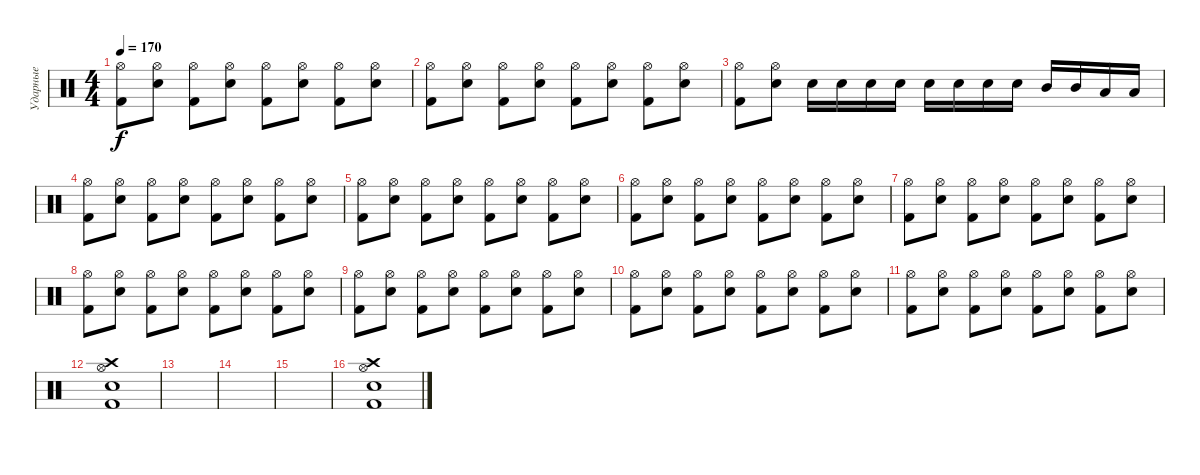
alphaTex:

\track ("Ударные" "Ударные") {instrument percussion}
\staff {score}
\articulation defaults
\ts (4 4)
\tempo 170
\clef neutral
\ks c
("Hi-Hat (open)" "Kick (hit) 2").8{dy f} ("Hi-Hat (open)" "Snare (hit) 2").8 ("Hi-Hat (open)" "Kick (hit) 2").8 ("Hi-Hat (open)" "Snare (hit) 2").8 ("Hi-Hat (open)" "Kick (hit) 2").8 ("Hi-Hat (open)" "Snare (hit) 2").8 ("Hi-Hat (open)" "Kick (hit) 2").8 ("Hi-Hat (open)" "Snare (hit) 2").8 |
("Hi-Hat (open)" "Kick (hit) 2").8 ("Hi-Hat (open)" "Snare (hit) 2").8 ("Hi-Hat (open)" "Kick (hit) 2").8 ("Hi-Hat (open)" "Snare (hit) 2").8 ("Hi-Hat (open)" "Kick (hit) 2").8 ("Hi-Hat (open)" "Snare (hit) 2").8 ("Hi-Hat (open)" "Kick (hit) 2").8 ("Hi-Hat (open)" "Snare (hit) 2").8 |
("Hi-Hat (open)" "Kick (hit) 2").8 ("Hi-Hat (open)" "Snare (hit) 2").8 "Snare (hit) 2".16 "Snare (hit) 2".16 "Snare (hit) 2".16 "Snare (hit) 2".16 "Snare (hit) 2".16 "Snare (hit) 2".16 "Snare (hit) 2".16 "Snare (hit) 2".16 "Mid Tom (hit)".16 "Mid Tom (hit)".16 "Low Tom (hit)".16 "Low Tom (hit)".16 |
("Hi-Hat (open)" "Kick (hit) 2").8 ("Hi-Hat (open)" "Snare (hit) 2").8 ("Hi-Hat (open)" "Kick (hit) 2").8 ("Hi-Hat (open)" "Snare (hit) 2").8 ("Hi-Hat (open)" "Kick (hit) 2").8 ("Hi-Hat (open)" "Snare (hit) 2").8 ("Hi-Hat (open)" "Kick (hit) 2").8 ("Hi-Hat (open)" "Snare (hit) 2").8 |
("Hi-Hat (open)" "Kick (hit) 2").8 ("Hi-Hat (open)" "Snare (hit) 2").8 ("Hi-Hat (open)" "Kick (hit) 2").8 ("Hi-Hat (open)" "Snare (hit) 2").8 ("Hi-Hat (open)" "Kick (hit) 2").8 ("Hi-Hat (open)" "Snare (hit) 2").8 ("Hi-Hat (open)" "Kick (hit) 2").8 ("Hi-Hat (open)" "Snare (hit) 2").8 |
("Hi-Hat (open)" "Kick (hit) 2").8 ("Hi-Hat (open)" "Snare (hit) 2").8 ("Hi-Hat (open)" "Kick (hit) 2").8 ("Hi-Hat (open)" "Snare (hit) 2").8 ("Hi-Hat (open)" "Kick (hit) 2").8 ("Hi-Hat (open)" "Snare (hit) 2").8 ("Hi-Hat (open)" "Kick (hit) 2").8 ("Hi-Hat (open)" "Snare (hit) 2").8 |
("Hi-Hat (open)" "Kick (hit) 2").8 ("Hi-Hat (open)" "Snare (hit) 2").8 ("Hi-Hat (open)" "Kick (hit) 2").8 ("Hi-Hat (open)" "Snare (hit) 2").8 ("Hi-Hat (open)" "Kick (hit) 2").8 ("Hi-Hat (open)" "Snare (hit) 2").8 ("Hi-Hat (open)" "Kick (hit) 2").8 ("Hi-Hat (open)" "Snare (hit) 2").8 |
("Hi-Hat (open)" "Kick (hit) 2").8 ("Hi-Hat (open)" "Snare (hit) 2").8 ("Hi-Hat (open)" "Kick (hit) 2").8 ("Hi-Hat (open)" "Snare (hit) 2").8 ("Hi-Hat (open)" "Kick (hit) 2").8 ("Hi-Hat (open)" "Snare (hit) 2").8 ("Hi-Hat (open)" "Kick (hit) 2").8 ("Hi-Hat (open)" "Snare (hit) 2").8 |
("Hi-Hat (open)" "Kick (hit) 2").8 ("Hi-Hat (open)" "Snare (hit) 2").8 ("Hi-Hat (open)" "Kick (hit) 2").8 ("Hi-Hat (open)" "Snare (hit) 2").8 ("Hi-Hat (open)" "Kick (hit) 2").8 ("Hi-Hat (open)" "Snare (hit) 2").8 ("Hi-Hat (open)" "Kick (hit) 2").8 ("Hi-Hat (open)" "Snare (hit) 2").8 |
("Hi-Hat (open)" "Kick (hit) 2").8 ("Hi-Hat (open)" "Snare (hit) 2").8 ("Hi-Hat (open)" "Kick (hit) 2").8 ("Hi-Hat (open)" "Snare (hit) 2").8 ("Hi-Hat (open)" "Kick (hit) 2").8 ("Hi-Hat (open)" "Snare (hit) 2").8 ("Hi-Hat (open)" "Kick (hit) 2").8 ("Hi-Hat (open)" "Snare (hit) 2").8 |
("Hi-Hat (open)" "Kick (hit) 2").8 ("Hi-Hat (open)" "Snare (hit) 2").8 ("Hi-Hat (open)" "Kick (hit) 2").8 ("Hi-Hat (open)" "Snare (hit) 2").8 ("Hi-Hat (open)" "Kick (hit) 2").8 ("Hi-Hat (open)" "Snare (hit) 2").8 ("Hi-Hat (open)" "Kick (hit) 2").8 ("Hi-Hat (open)" "Snare (hit) 2").8 |
("Crash high (hit)" "Snare (hit) 2" "Hi-Hat (open)" "Kick (hit) 2").1 |
|
|
|
("Crash high (hit)" "Hi-Hat (open)" "Snare (hit) 2" "Kick (hit) 2").1
